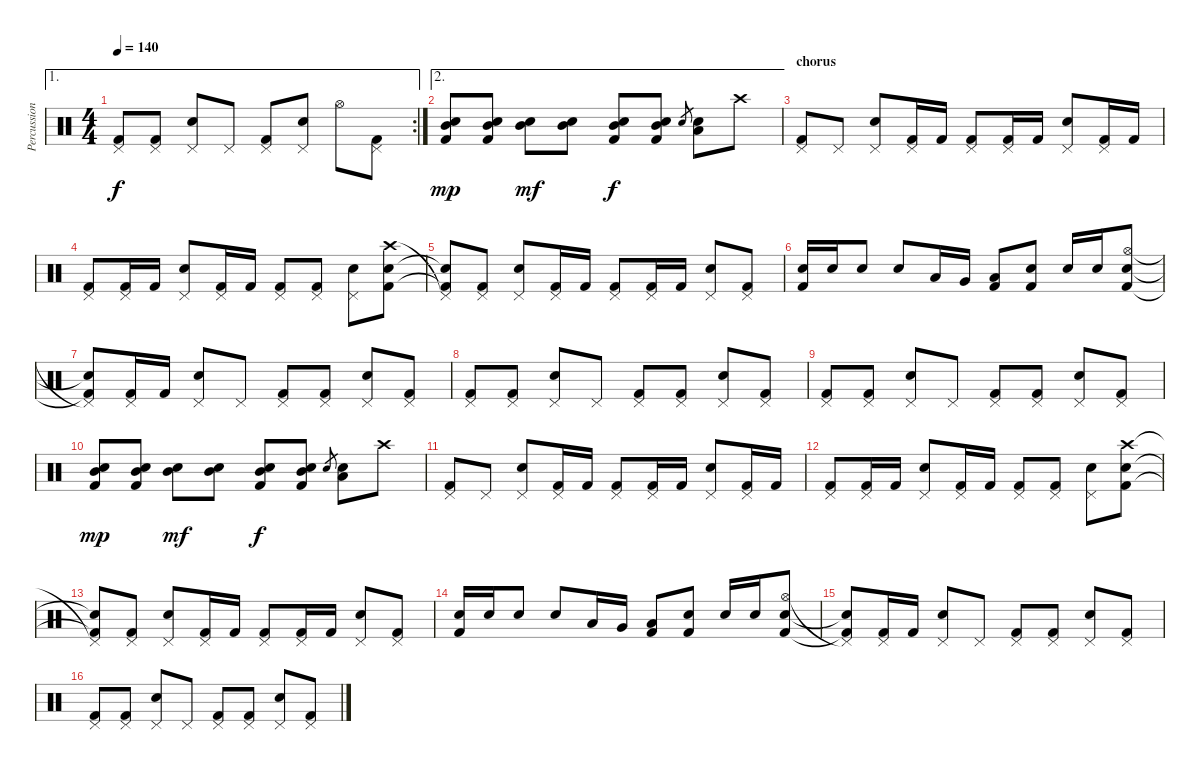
\track ("Percussions" "Percussion") {instrument percussion}
\staff {score}
\articulation defaults
\ae 1
\rc 2
\ts (4 4)
\tempo 140
\clef neutral
\ks c
("Pedal Hi-Hat (hit)" "Kick (hit) 2").8{dy f} ("Pedal Hi-Hat (hit)" "Kick (hit) 2").8 ("Pedal Hi-Hat (hit)" "Snare (hit) 2").8 "Pedal Hi-Hat (hit)".8 ("Pedal Hi-Hat (hit)" "Kick (hit) 2").8 ("Pedal Hi-Hat (hit)" "Snare (hit) 2").8 "Hi-Hat (open)".8 ("Pedal Hi-Hat (hit)" "Kick (hit) 2").8 |
\ae 2
("Mid Tom (hit)" "Snare (hit) 2" "Kick (hit) 2").8{dy mp} ("Mid Tom (hit)" "Snare (hit) 2" "Kick (hit) 2").8 ("Mid Tom (hit)" "Snare (hit) 2").8{dy mf} ("Mid Tom (hit)" "Snare (hit) 2").8 ("Mid Tom (hit)" "Snare (hit) 2" "Kick (hit) 2").8{dy f} ("Mid Tom (hit)" "Snare (hit) 2" "Kick (hit) 2").8 "Snare (hit) 2".8{gr} ("Low Tom (hit)" "Electric Snare (hit)").8 "Crash high (hit)".8 |
\section ("" "chorus")
("Pedal Hi-Hat (hit)" "Kick (hit) 2").8 "Pedal Hi-Hat (hit)".8 ("Pedal Hi-Hat (hit)" "Snare (hit) 2").8 ("Pedal Hi-Hat (hit)" "Kick (hit) 2").16 "Kick (hit) 2".16 ("Pedal Hi-Hat (hit)" "Kick (hit) 2").8 ("Pedal Hi-Hat (hit)" "Kick (hit) 2").16 "Kick (hit) 2".16 ("Pedal Hi-Hat (hit)" "Snare (hit) 2").8 ("Pedal Hi-Hat (hit)" "Kick (hit) 2").16 "Kick (hit) 2".16 |
("Pedal Hi-Hat (hit)" "Kick (hit) 2").8 ("Pedal Hi-Hat (hit)" "Kick (hit) 2").16 "Kick (hit) 2".16 ("Pedal Hi-Hat (hit)" "Snare (hit) 2").8 ("Pedal Hi-Hat (hit)" "Kick (hit) 2").16 "Kick (hit) 2".16 ("Pedal Hi-Hat (hit)" "Kick (hit) 2").8 ("Pedal Hi-Hat (hit)" "Kick (hit) 2").8 ("Pedal Hi-Hat (hit)" "Snare (hit) 2").8 ("Crash high (hit)" "Snare (hit) 2" "Kick (hit) 2").8 |
("Pedal Hi-Hat (hit)"{t} "Snare (hit)"{t} "Kick (hit) 2"{t}).8 ("Pedal Hi-Hat (hit)" "Kick (hit) 2").8 ("Pedal Hi-Hat (hit)" "Snare (hit) 2").8 ("Pedal Hi-Hat (hit)" "Kick (hit) 2").16 "Kick (hit) 2".16 ("Pedal Hi-Hat (hit)" "Kick (hit) 2").8 ("Pedal Hi-Hat (hit)" "Kick (hit) 2").16 "Kick (hit) 2".16 ("Pedal Hi-Hat (hit)" "Snare (hit) 2").8 ("Pedal Hi-Hat (hit)" "Kick (hit) 2").8 |
("Electric Snare (hit)" "Kick (hit) 2").16 "Snare (hit) 2".16 "Electric Snare (hit)".8 "Electric Snare (hit)".8 "Low Tom (hit)".16 "Very Low Tom (hit)".16 ("Low Floor Tom (hit)" "Kick (hit) 2").8 ("Electric Snare (hit)" "Kick (hit) 2").8 "Snare (hit) 2".16 "Snare (hit) 2".16 ("Hi-Hat (open)" "Electric Snare (hit)" "Kick (hit) 2").8 |
("Pedal Hi-Hat (hit)"{t} "Snare (hit)"{t} "Kick (hit) 2"{t}).8 ("Pedal Hi-Hat (hit)" "Kick (hit) 2").16 "Kick (hit) 2".16 ("Pedal Hi-Hat (hit)" "Snare (hit) 2").8 "Pedal Hi-Hat (hit)".8 ("Pedal Hi-Hat (hit)" "Kick (hit) 2").8 ("Pedal Hi-Hat (hit)" "Kick (hit) 2").8 ("Pedal Hi-Hat (hit)" "Snare (hit) 2").8 ("Pedal Hi-Hat (hit)" "Kick (hit) 2").8 |
("Pedal Hi-Hat (hit)" "Kick (hit) 2").8 ("Pedal Hi-Hat (hit)" "Kick (hit) 2").8 ("Pedal Hi-Hat (hit)" "Snare (hit) 2").8 "Pedal Hi-Hat (hit)".8 ("Pedal Hi-Hat (hit)" "Kick (hit) 2").8 ("Pedal Hi-Hat (hit)" "Kick (hit) 2").8 ("Pedal Hi-Hat (hit)" "Snare (hit) 2").8 ("Pedal Hi-Hat (hit)" "Kick (hit) 2").8 |
("Pedal Hi-Hat (hit)" "Kick (hit) 2").8 ("Pedal Hi-Hat (hit)" "Kick (hit) 2").8 ("Pedal Hi-Hat (hit)" "Snare (hit) 2").8 "Pedal Hi-Hat (hit)".8 ("Pedal Hi-Hat (hit)" "Kick (hit) 2").8 ("Pedal Hi-Hat (hit)" "Kick (hit) 2").8 ("Pedal Hi-Hat (hit)" "Snare (hit) 2").8 ("Pedal Hi-Hat (hit)" "Kick (hit) 2").8 |
("Mid Tom (hit)" "Snare (hit) 2" "Kick (hit) 2").8{dy mp} ("Mid Tom (hit)" "Snare (hit) 2" "Kick (hit) 2").8 ("Mid Tom (hit)" "Snare (hit) 2").8{dy mf} ("Mid Tom (hit)" "Snare (hit) 2").8 ("Mid Tom (hit)" "Snare (hit) 2" "Kick (hit) 2").8{dy f} ("Mid Tom (hit)" "Snare (hit) 2" "Kick (hit) 2").8 "Snare (hit) 2".8{gr} ("Low Tom (hit)" "Electric Snare (hit)").8 "Crash high (hit)".8 |
("Pedal Hi-Hat (hit)" "Kick (hit) 2").8 "Pedal Hi-Hat (hit)".8 ("Pedal Hi-Hat (hit)" "Snare (hit) 2").8 ("Pedal Hi-Hat (hit)" "Kick (hit) 2").16 "Kick (hit) 2".16 ("Pedal Hi-Hat (hit)" "Kick (hit) 2").8 ("Pedal Hi-Hat (hit)" "Kick (hit) 2").16 "Kick (hit) 2".16 ("Pedal Hi-Hat (hit)" "Snare (hit) 2").8 ("Pedal Hi-Hat (hit)" "Kick (hit) 2").16 "Kick (hit) 2".16 |
("Pedal Hi-Hat (hit)" "Kick (hit) 2").8 ("Pedal Hi-Hat (hit)" "Kick (hit) 2").16 "Kick (hit) 2".16 ("Pedal Hi-Hat (hit)" "Snare (hit) 2").8 ("Pedal Hi-Hat (hit)" "Kick (hit) 2").16 "Kick (hit) 2".16 ("Pedal Hi-Hat (hit)" "Kick (hit) 2").8 ("Pedal Hi-Hat (hit)" "Kick (hit) 2").8 ("Pedal Hi-Hat (hit)" "Snare (hit) 2").8 ("Crash high (hit)" "Snare (hit) 2" "Kick (hit) 2").8 |
("Pedal Hi-Hat (hit)"{t} "Snare (hit)"{t} "Kick (hit) 2"{t}).8 ("Pedal Hi-Hat (hit)" "Kick (hit) 2").8 ("Pedal Hi-Hat (hit)" "Snare (hit) 2").8 ("Pedal Hi-Hat (hit)" "Kick (hit) 2").16 "Kick (hit) 2".16 ("Pedal Hi-Hat (hit)" "Kick (hit) 2").8 ("Pedal Hi-Hat (hit)" "Kick (hit) 2").16 "Kick (hit) 2".16 ("Pedal Hi-Hat (hit)" "Snare (hit) 2").8 ("Pedal Hi-Hat (hit)" "Kick (hit) 2").8 |
("Electric Snare (hit)" "Kick (hit) 2").16 "Snare (hit) 2".16 "Electric Snare (hit)".8 "Electric Snare (hit)".8 "Low Tom (hit)".16 "Very Low Tom (hit)".16 ("Low Floor Tom (hit)" "Kick (hit) 2").8 ("Electric Snare (hit)" "Kick (hit) 2").8 "Snare (hit) 2".16 "Snare (hit) 2".16 ("Hi-Hat (open)" "Electric Snare (hit)" "Kick (hit) 2").8 |
("Pedal Hi-Hat (hit)"{t} "Snare (hit)"{t} "Kick (hit) 2"{t}).8 ("Pedal Hi-Hat (hit)" "Kick (hit) 2").16 "Kick (hit) 2".16 ("Pedal Hi-Hat (hit)" "Snare (hit) 2").8 "Pedal Hi-Hat (hit)".8 ("Pedal Hi-Hat (hit)" "Kick (hit) 2").8 ("Pedal Hi-Hat (hit)" "Kick (hit) 2").8 ("Pedal Hi-Hat (hit)" "Snare (hit) 2").8 ("Pedal Hi-Hat (hit)" "Kick (hit) 2").8 |
("Pedal Hi-Hat (hit)" "Kick (hit) 2").8 ("Pedal Hi-Hat (hit)" "Kick (hit) 2").8 ("Pedal Hi-Hat (hit)" "Snare (hit) 2").8 "Pedal Hi-Hat (hit)".8 ("Pedal Hi-Hat (hit)" "Kick (hit) 2").8 ("Pedal Hi-Hat (hit)" "Kick (hit) 2").8 ("Pedal Hi-Hat (hit)" "Snare (hit) 2").8 ("Pedal Hi-Hat (hit)" "Kick (hit) 2").8
